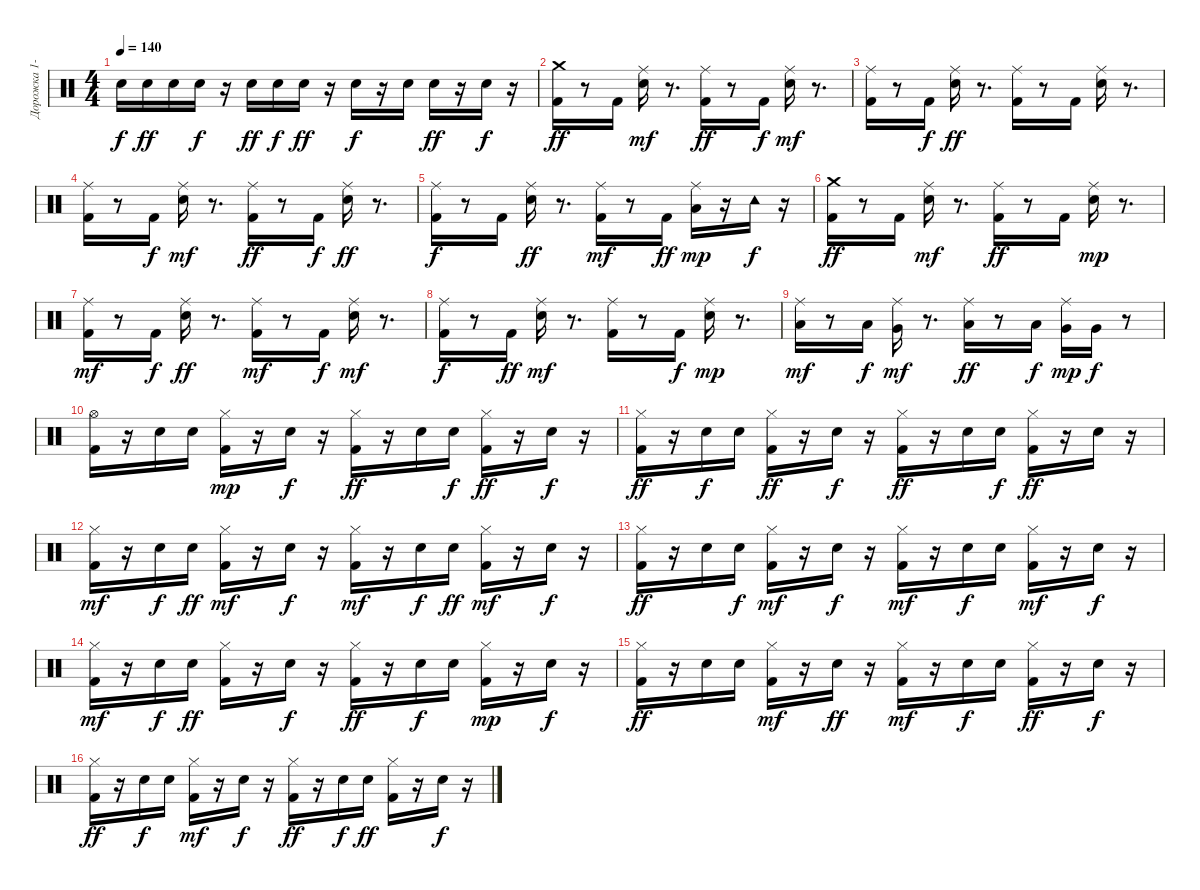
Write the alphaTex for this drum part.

\track ("Дорожка 1-2" "Дорожка 1-") {instrument percussion}
\staff {score}
\articulation defaults
\ts (4 4)
\tempo 140
\clef neutral
\ks c "Electric Snare (hit)".16{dy f} "Electric Snare (hit)".16{dy ff} "Electric Snare (hit)".16 "Electric Snare (hit)".16{dy f}
r.16 "Electric Snare (hit)".16{dy ff} "Electric Snare (hit)".16{dy f} "Electric Snare (hit)".16{dy ff} r.16 "Electric Snare (hit)".16{dy f} r.16 "Electric Snare (hit)".16 "Electric Snare (hit)".16{dy ff} r.16 "Electric Snare (hit)".16{dy f} r.16 |
("Kick (hit) 2" "Crash medium (hit)").16{dy ff} r.8 "Kick (hit) 2".16 ("Electric Snare (hit)" "Ride (middle)").16{dy mf} r.8{d} ("Ride (middle)" "Kick (hit) 2").16{dy ff} r.8 "Kick (hit) 2".16{dy f} ("Ride (middle)" "Electric Snare (hit)").16{dy mf} r.8{d} |
("Ride (middle)" "Kick (hit) 2").16 r.8 "Kick (hit) 2".16{dy f} ("Ride (middle)" "Electric Snare (hit)").16{dy ff} r.8{d} ("Ride (middle)" "Kick (hit) 2").16 r.8 "Kick (hit) 2".16 ("Ride (middle)" "Electric Snare (hit)").16 r.8{d} |
("Kick (hit) 2" "Ride (middle)").16 r.8 "Kick (hit) 2".16{dy f} ("Electric Snare (hit)" "Ride (middle)").16{dy mf} r.8{d} ("Ride (middle)" "Kick (hit) 2").16{dy ff} r.8 "Kick (hit) 2".16{dy f} ("Ride (middle)" "Electric Snare (hit)").16{dy ff} r.8{d} |
("Ride (middle)" "Kick (hit) 2").16{dy f} r.8 "Kick (hit) 2".16 ("Ride (middle)" "Electric Snare (hit)").16{dy ff} r.8{d} ("Ride (middle)" "Kick (hit) 2").16{dy mf} r.8 "Kick (hit) 2".16{dy ff} ("Low Floor Tom (hit)" "Ride (middle)").16{dy mp} r.16 "Tambourine (hit)".16{dy f} r.16 |
("Kick (hit) 2" "Crash medium (hit)").16{dy ff} r.8 "Kick (hit) 2".16 ("Electric Snare (hit)" "Ride (middle)").16{dy mf} r.8{d} ("Ride (middle)" "Kick (hit) 2").16{dy ff} r.8 "Kick (hit) 2".16 ("Ride (middle)" "Electric Snare (hit)").16{dy mp} r.8{d} |
("Ride (middle)" "Kick (hit) 2").16{dy mf} r.8 "Kick (hit) 2".16{dy f} ("Ride (middle)" "Electric Snare (hit)").16{dy ff} r.8{d} ("Ride (middle)" "Kick (hit) 2").16{dy mf} r.8 "Kick (hit) 2".16{dy f} ("Ride (middle)" "Electric Snare (hit)").16{dy mf} r.8{d} |
("Ride (middle)" "Kick (hit) 2").16{dy f} r.8 "Kick (hit) 2".16{dy ff} ("Electric Snare (hit)" "Ride (middle)").16{dy mf} r.8{d} ("Ride (middle)" "Kick (hit) 2").16 r.8 "Kick (hit) 2".16{dy f} ("Ride (middle)" "Electric Snare (hit)").16{dy mp} r.8{d} |
("Low Floor Tom (hit)" "Ride (middle)").16{dy mf} r.8 "Low Floor Tom (hit)".16{dy f} ("Ride (middle)" "Very Low Tom (hit)").16{dy mf} r.8{d} ("Ride (middle)" "Low Floor Tom (hit)").16{dy ff} r.8 "Low Floor Tom (hit)".16{dy f} ("Very Low Tom (hit)" "Ride (middle)").16{dy mp} "Very Low Tom (hit)".16{dy f} r.8 |
("Kick (hit) 2" "Hi-Hat (open)").16 r.16 "Electric Snare (hit)".16 "Electric Snare (hit)".16 ("Hi-Hat (closed)" "Kick (hit) 2").16{dy mp} r.16 "Electric Snare (hit)".16{dy f} r.16 ("Hi-Hat (closed)" "Kick (hit) 2").16{dy ff} r.16 "Electric Snare (hit)".16 "Electric Snare (hit)".16{dy f} ("Hi-Hat (closed)" "Kick (hit) 2").16{dy ff} r.16 "Electric Snare (hit)".16{dy f} r.16 |
("Hi-Hat (closed)" "Kick (hit) 2").16{dy ff} r.16 "Electric Snare (hit)".16{dy f} "Electric Snare (hit)".16 ("Hi-Hat (closed)" "Kick (hit) 2").16{dy ff} r.16 "Electric Snare (hit)".16{dy f} r.16 ("Hi-Hat (closed)" "Kick (hit) 2").16{dy ff} r.16 "Electric Snare (hit)".16 "Electric Snare (hit)".16{dy f} ("Hi-Hat (closed)" "Kick (hit) 2").16{dy ff} r.16 "Electric Snare (hit)".16 r.16 |
("Hi-Hat (closed)" "Kick (hit) 2").16{dy mf} r.16 "Electric Snare (hit)".16{dy f} "Electric Snare (hit)".16{dy ff} ("Hi-Hat (closed)" "Kick (hit) 2").16{dy mf} r.16 "Electric Snare (hit)".16{dy f} r.16 ("Hi-Hat (closed)" "Kick (hit) 2").16{dy mf} r.16 "Electric Snare (hit)".16{dy f} "Electric Snare (hit)".16{dy ff} ("Hi-Hat (closed)" "Kick (hit) 2").16{dy mf} r.16 "Electric Snare (hit)".16{dy f} r.16 |
("Hi-Hat (closed)" "Kick (hit) 2").16{dy ff} r.16 "Electric Snare (hit)".16 "Electric Snare (hit)".16{dy f} ("Hi-Hat (closed)" "Kick (hit) 2").16{dy mf} r.16 "Electric Snare (hit)".16{dy f} r.16 ("Hi-Hat (closed)" "Kick (hit) 2").16{dy mf} r.16 "Electric Snare (hit)".16{dy f} "Electric Snare (hit)".16 ("Hi-Hat (closed)" "Kick (hit) 2").16{dy mf} r.16 "Electric Snare (hit)".16{dy f} r.16 |
("Kick (hit) 2" "Hi-Hat (closed)").16{dy mf} r.16 "Electric Snare (hit)".16{dy f} "Electric Snare (hit)".16{dy ff} ("Hi-Hat (closed)" "Kick (hit) 2").16 r.16 "Electric Snare (hit)".16{dy f} r.16 ("Hi-Hat (closed)" "Kick (hit) 2").16{dy ff} r.16 "Electric Snare (hit)".16{dy f} "Electric Snare (hit)".16 ("Hi-Hat (closed)" "Kick (hit) 2").16{dy mp} r.16 "Electric Snare (hit)".16{dy f} r.16 |
("Hi-Hat (closed)" "Kick (hit) 2").16{dy ff} r.16 "Electric Snare (hit)".16 "Electric Snare (hit)".16 ("Hi-Hat (closed)" "Kick (hit) 2").16{dy mf} r.16 "Electric Snare (hit)".16{dy ff} r.16 ("Hi-Hat (closed)" "Kick (hit) 2").16{dy mf} r.16 "Electric Snare (hit)".16{dy f} "Electric Snare (hit)".16 ("Hi-Hat (closed)" "Kick (hit) 2").16{dy ff} r.16 "Electric Snare (hit)".16{dy f} r.16 |
("Kick (hit) 2" "Hi-Hat (closed)").16{dy ff} r.16 "Electric Snare (hit)".16{dy f} "Electric Snare (hit)".16 ("Hi-Hat (closed)" "Kick (hit) 2").16{dy mf} r.16 "Electric Snare (hit)".16{dy f} r.16 ("Hi-Hat (closed)" "Kick (hit) 2").16{dy ff} r.16 "Electric Snare (hit)".16{dy f} "Electric Snare (hit)".16{dy ff} ("Hi-Hat (closed)" "Kick (hit) 2").16 r.16 "Electric Snare (hit)".16{dy f} r.16
